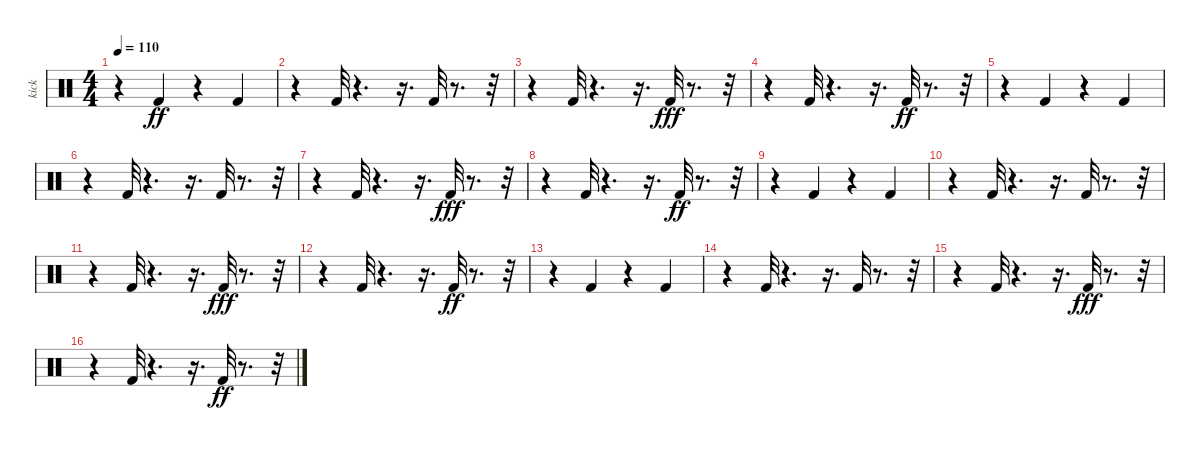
\track ("kick    " "kick    ") {instrument percussion}
\staff {score}
\articulation defaults
\ts (4 4)
\tempo 110
\clef neutral
\ks c
r.4{dy ff} "Kick (hit) 2".4 r.4 "Kick (hit) 2".4 |
r.4 "Kick (hit) 2".32 r.4{d} r.16{d} "Kick (hit) 2".32 r.8{d} r.32 |
r.4 "Kick (hit) 2".32 r.4{d} r.16{d} "Kick (hit) 2".32{dy fff} r.8{d} r.32 |
r.4 "Kick (hit) 2".32 r.4{d} r.16{d} "Kick (hit) 2".32{dy ff} r.8{d} r.32 |
r.4 "Kick (hit) 2".4 r.4 "Kick (hit) 2".4 |
r.4 "Kick (hit) 2".32 r.4{d} r.16{d} "Kick (hit) 2".32 r.8{d} r.32 |
r.4 "Kick (hit) 2".32 r.4{d} r.16{d} "Kick (hit) 2".32{dy fff} r.8{d} r.32 |
r.4 "Kick (hit) 2".32 r.4{d} r.16{d} "Kick (hit) 2".32{dy ff} r.8{d} r.32 |
r.4 "Kick (hit) 2".4 r.4 "Kick (hit) 2".4 |
r.4 "Kick (hit) 2".32 r.4{d} r.16{d} "Kick (hit) 2".32 r.8{d} r.32 |
r.4 "Kick (hit) 2".32 r.4{d} r.16{d} "Kick (hit) 2".32{dy fff} r.8{d} r.32 |
r.4 "Kick (hit) 2".32 r.4{d} r.16{d} "Kick (hit) 2".32{dy ff} r.8{d} r.32 |
r.4 "Kick (hit) 2".4 r.4 "Kick (hit) 2".4 |
r.4 "Kick (hit) 2".32 r.4{d} r.16{d} "Kick (hit) 2".32 r.8{d} r.32 |
r.4 "Kick (hit) 2".32 r.4{d} r.16{d} "Kick (hit) 2".32{dy fff} r.8{d} r.32 |
r.4 "Kick (hit) 2".32 r.4{d} r.16{d} "Kick (hit) 2".32{dy ff} r.8{d} r.32
